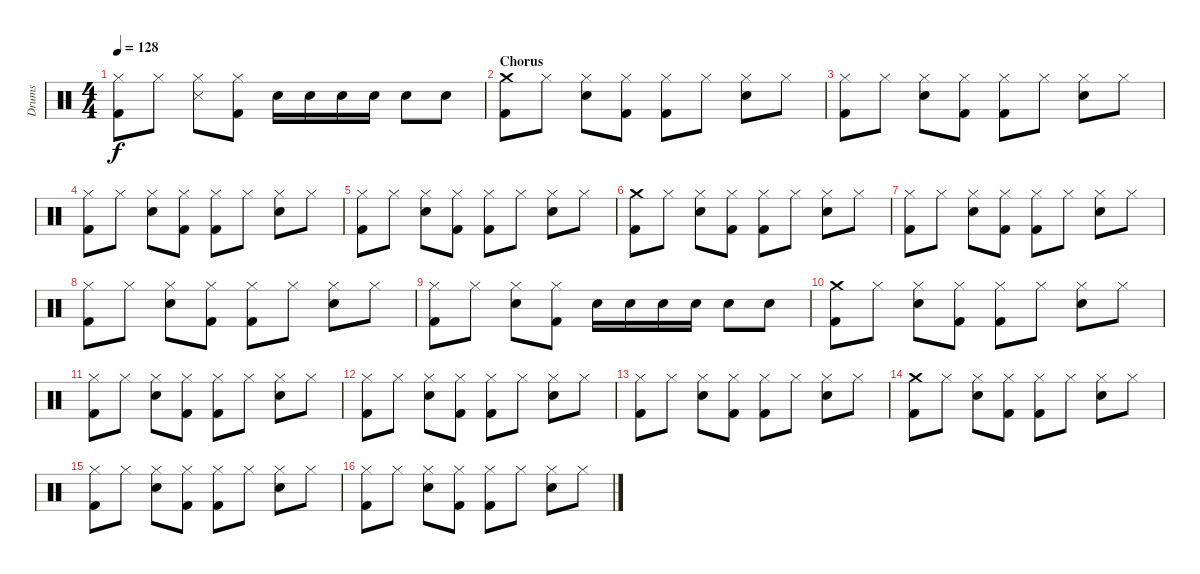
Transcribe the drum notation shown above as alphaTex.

\track ("Drums" "Drums") {instrument percussion}
\staff {score}
\articulation defaults
\ts (4 4)
\tempo 128
\clef neutral
\ks c
("Kick (hit) 2" "Hi-Hat (closed)").8{dy f} "Hi-Hat (closed)".8 ("Hi-Hat (closed)" "Snare (side stick) 3").8 ("Hi-Hat (closed)" "Kick (hit) 2").8 "Electric Snare (hit)".16 "Electric Snare (hit)".16 "Electric Snare (hit)".16 "Electric Snare (hit)".16 "Electric Snare (hit)".8 "Electric Snare (hit)".8 |
\section ("" "Chorus")
("Kick (hit) 2" "Crash medium (hit)").8 "Hi-Hat (closed)".8 ("Hi-Hat (closed)" "Electric Snare (hit)").8 ("Kick (hit) 2" "Hi-Hat (closed)").8 ("Hi-Hat (closed)" "Kick (hit) 2").8 "Hi-Hat (closed)".8 ("Hi-Hat (closed)" "Electric Snare (hit)").8 "Hi-Hat (closed)".8 |
("Hi-Hat (closed)" "Kick (hit) 2").8 "Hi-Hat (closed)".8 ("Hi-Hat (closed)" "Electric Snare (hit)").8 ("Kick (hit) 2" "Hi-Hat (closed)").8 ("Hi-Hat (closed)" "Kick (hit) 2").8 "Hi-Hat (closed)".8 ("Hi-Hat (closed)" "Electric Snare (hit)").8 "Hi-Hat (closed)".8 |
("Hi-Hat (closed)" "Kick (hit) 2").8 "Hi-Hat (closed)".8 ("Hi-Hat (closed)" "Electric Snare (hit)").8 ("Kick (hit) 2" "Hi-Hat (closed)").8 ("Hi-Hat (closed)" "Kick (hit) 2").8 "Hi-Hat (closed)".8 ("Hi-Hat (closed)" "Electric Snare (hit)").8 "Hi-Hat (closed)".8 |
("Hi-Hat (closed)" "Kick (hit) 2").8 "Hi-Hat (closed)".8 ("Hi-Hat (closed)" "Electric Snare (hit)").8 ("Kick (hit) 2" "Hi-Hat (closed)").8 ("Hi-Hat (closed)" "Kick (hit) 2").8 "Hi-Hat (closed)".8 ("Hi-Hat (closed)" "Electric Snare (hit)").8 "Hi-Hat (closed)".8 |
("Kick (hit) 2" "Crash medium (hit)").8 "Hi-Hat (closed)".8 ("Hi-Hat (closed)" "Electric Snare (hit)").8 ("Kick (hit) 2" "Hi-Hat (closed)").8 ("Hi-Hat (closed)" "Kick (hit) 2").8 "Hi-Hat (closed)".8 ("Hi-Hat (closed)" "Electric Snare (hit)").8 "Hi-Hat (closed)".8 |
("Hi-Hat (closed)" "Kick (hit) 2").8 "Hi-Hat (closed)".8 ("Hi-Hat (closed)" "Electric Snare (hit)").8 ("Kick (hit) 2" "Hi-Hat (closed)").8 ("Hi-Hat (closed)" "Kick (hit) 2").8 "Hi-Hat (closed)".8 ("Hi-Hat (closed)" "Electric Snare (hit)").8 "Hi-Hat (closed)".8 |
("Hi-Hat (closed)" "Kick (hit) 2").8 "Hi-Hat (closed)".8 ("Hi-Hat (closed)" "Electric Snare (hit)").8 ("Kick (hit) 2" "Hi-Hat (closed)").8 ("Hi-Hat (closed)" "Kick (hit) 2").8 "Hi-Hat (closed)".8 ("Hi-Hat (closed)" "Electric Snare (hit)").8 "Hi-Hat (closed)".8 |
("Kick (hit) 2" "Hi-Hat (closed)").8 "Hi-Hat (closed)".8 ("Electric Snare (hit)" "Hi-Hat (closed)").8 ("Kick (hit) 2" "Hi-Hat (closed)").8 "Electric Snare (hit)".16 "Electric Snare (hit)".16 "Electric Snare (hit)".16 "Electric Snare (hit)".16 "Electric Snare (hit)".8 "Electric Snare (hit)".8 |
("Kick (hit) 2" "Crash medium (hit)").8 "Hi-Hat (closed)".8 ("Hi-Hat (closed)" "Electric Snare (hit)").8 ("Kick (hit) 2" "Hi-Hat (closed)").8 ("Hi-Hat (closed)" "Kick (hit) 2").8 "Hi-Hat (closed)".8 ("Hi-Hat (closed)" "Electric Snare (hit)").8 "Hi-Hat (closed)".8 |
("Hi-Hat (closed)" "Kick (hit) 2").8 "Hi-Hat (closed)".8 ("Hi-Hat (closed)" "Electric Snare (hit)").8 ("Kick (hit) 2" "Hi-Hat (closed)").8 ("Hi-Hat (closed)" "Kick (hit) 2").8 "Hi-Hat (closed)".8 ("Hi-Hat (closed)" "Electric Snare (hit)").8 "Hi-Hat (closed)".8 |
("Hi-Hat (closed)" "Kick (hit) 2").8 "Hi-Hat (closed)".8 ("Hi-Hat (closed)" "Electric Snare (hit)").8 ("Kick (hit) 2" "Hi-Hat (closed)").8 ("Hi-Hat (closed)" "Kick (hit) 2").8 "Hi-Hat (closed)".8 ("Hi-Hat (closed)" "Electric Snare (hit)").8 "Hi-Hat (closed)".8 |
("Hi-Hat (closed)" "Kick (hit) 2").8 "Hi-Hat (closed)".8 ("Hi-Hat (closed)" "Electric Snare (hit)").8 ("Kick (hit) 2" "Hi-Hat (closed)").8 ("Hi-Hat (closed)" "Kick (hit) 2").8 "Hi-Hat (closed)".8 ("Hi-Hat (closed)" "Electric Snare (hit)").8 "Hi-Hat (closed)".8 |
("Kick (hit) 2" "Crash medium (hit)").8 "Hi-Hat (closed)".8 ("Hi-Hat (closed)" "Electric Snare (hit)").8 ("Kick (hit) 2" "Hi-Hat (closed)").8 ("Hi-Hat (closed)" "Kick (hit) 2").8 "Hi-Hat (closed)".8 ("Hi-Hat (closed)" "Electric Snare (hit)").8 "Hi-Hat (closed)".8 |
("Hi-Hat (closed)" "Kick (hit) 2").8 "Hi-Hat (closed)".8 ("Hi-Hat (closed)" "Electric Snare (hit)").8 ("Kick (hit) 2" "Hi-Hat (closed)").8 ("Hi-Hat (closed)" "Kick (hit) 2").8 "Hi-Hat (closed)".8 ("Hi-Hat (closed)" "Electric Snare (hit)").8 "Hi-Hat (closed)".8 |
("Hi-Hat (closed)" "Kick (hit) 2").8 "Hi-Hat (closed)".8 ("Hi-Hat (closed)" "Electric Snare (hit)").8 ("Kick (hit) 2" "Hi-Hat (closed)").8 ("Hi-Hat (closed)" "Kick (hit) 2").8 "Hi-Hat (closed)".8 ("Hi-Hat (closed)" "Electric Snare (hit)").8 "Hi-Hat (closed)".8
